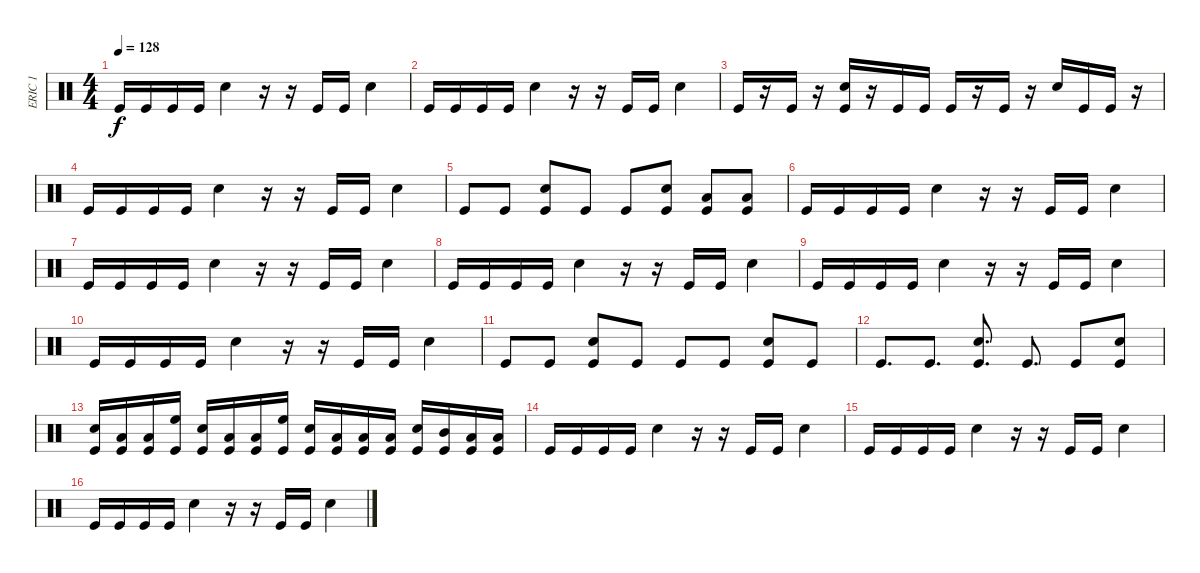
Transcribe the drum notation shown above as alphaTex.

\track ("ERIC 1" "ERIC 1") {instrument percussion}
\staff {score}
\articulation defaults
\ts (4 4)
\tempo 128
\clef neutral
\ks c "Kick (hit)".16{dy f} "Kick (hit)".16 "Kick (hit)".16 "Kick (hit)".16 "Electric Snare (hit)".4
r.16 r.16 "Kick (hit)".16 "Kick (hit)".16 "Electric Snare (hit)".4 |
"Kick (hit)".16 "Kick (hit)".16 "Kick (hit)".16 "Kick (hit)".16 "Electric Snare (hit)".4 r.16 r.16 "Kick (hit)".16 "Kick (hit)".16 "Electric Snare (hit)".4 |
"Kick (hit)".16 r.16 "Kick (hit)".16 r.16 ("Electric Snare (hit)" "Kick (hit)").16 r.16 "Kick (hit)".16 "Kick (hit)".16 "Kick (hit)".16 r.16 "Kick (hit)".16 r.16 "Electric Snare (hit)".16 "Kick (hit)".16 "Kick (hit)".16 r.16 |
"Kick (hit)".16 "Kick (hit)".16 "Kick (hit)".16 "Kick (hit)".16 "Electric Snare (hit)".4 r.16 r.16 "Kick (hit)".16 "Kick (hit)".16 "Electric Snare (hit)".4 |
"Kick (hit)".8 "Kick (hit)".8 ("Electric Snare (hit)" "Kick (hit)").8 "Kick (hit)".8 "Kick (hit)".8 ("Electric Snare (hit)" "Kick (hit)").8 ("Low Tom (hit)" "Kick (hit)").8 ("Low Floor Tom (hit)" "Kick (hit)").8 |
"Kick (hit)".16 "Kick (hit)".16 "Kick (hit)".16 "Kick (hit)".16 "Electric Snare (hit)".4 r.16 r.16 "Kick (hit)".16 "Kick (hit)".16 "Electric Snare (hit)".4 |
"Kick (hit)".16 "Kick (hit)".16 "Kick (hit)".16 "Kick (hit)".16 "Electric Snare (hit)".4 r.16 r.16 "Kick (hit)".16 "Kick (hit)".16 "Electric Snare (hit)".4 |
"Kick (hit)".16 "Kick (hit)".16 "Kick (hit)".16 "Kick (hit)".16 "Electric Snare (hit)".4 r.16 r.16 "Kick (hit)".16 "Kick (hit)".16 "Electric Snare (hit)".4 |
"Kick (hit)".16 "Kick (hit)".16 "Kick (hit)".16 "Kick (hit)".16 "Electric Snare (hit)".4 r.16 r.16 "Kick (hit)".16 "Kick (hit)".16 "Electric Snare (hit)".4 |
"Kick (hit)".16 "Kick (hit)".16 "Kick (hit)".16 "Kick (hit)".16 "Electric Snare (hit)".4 r.16 r.16 "Kick (hit)".16 "Kick (hit)".16 "Electric Snare (hit)".4 |
"Kick (hit)".8 "Kick (hit)".8 ("Electric Snare (hit)" "Kick (hit)").8 "Kick (hit)".8 "Kick (hit)".8 "Kick (hit)".8 ("Electric Snare (hit)" "Kick (hit)").8 "Kick (hit)".8 |
"Kick (hit)".8{d} "Kick (hit)".8{d} ("Electric Snare (hit)" "Kick (hit)").8{d} "Kick (hit)".8{d} "Kick (hit)".8 ("Electric Snare (hit)" "Kick (hit)").8 |
("Electric Snare (hit)" "Kick (hit)").16 ("Low Floor Tom (hit)" "Kick (hit)").16 ("Low Tom (hit)" "Kick (hit)").16 ("High Floor Tom (hit)" "Kick (hit)").16 ("Electric Snare (hit)" "Kick (hit)").16 ("Low Floor Tom (hit)" "Kick (hit)").16 ("Low Tom (hit)" "Kick (hit)").16 ("High Floor Tom (hit)" "Kick (hit)").16 ("Electric Snare (hit)" "Kick (hit)").16 ("Low Floor Tom (hit)" "Kick (hit)").16 ("Low Tom (hit)" "Kick (hit)").16 ("Low Floor Tom (hit)" "Kick (hit)").16 ("Electric Snare (hit)" "Kick (hit)").16 ("Mid Tom (hit)" "Kick (hit)").16 ("Low Tom (hit)" "Kick (hit)").16 ("Low Floor Tom (hit)" "Kick (hit)").16 |
"Kick (hit)".16 "Kick (hit)".16 "Kick (hit)".16 "Kick (hit)".16 "Electric Snare (hit)".4 r.16 r.16 "Kick (hit)".16 "Kick (hit)".16 "Electric Snare (hit)".4 |
"Kick (hit)".16 "Kick (hit)".16 "Kick (hit)".16 "Kick (hit)".16 "Electric Snare (hit)".4 r.16 r.16 "Kick (hit)".16 "Kick (hit)".16 "Electric Snare (hit)".4 |
"Kick (hit)".16 "Kick (hit)".16 "Kick (hit)".16 "Kick (hit)".16 "Electric Snare (hit)".4 r.16 r.16 "Kick (hit)".16 "Kick (hit)".16 "Electric Snare (hit)".4
